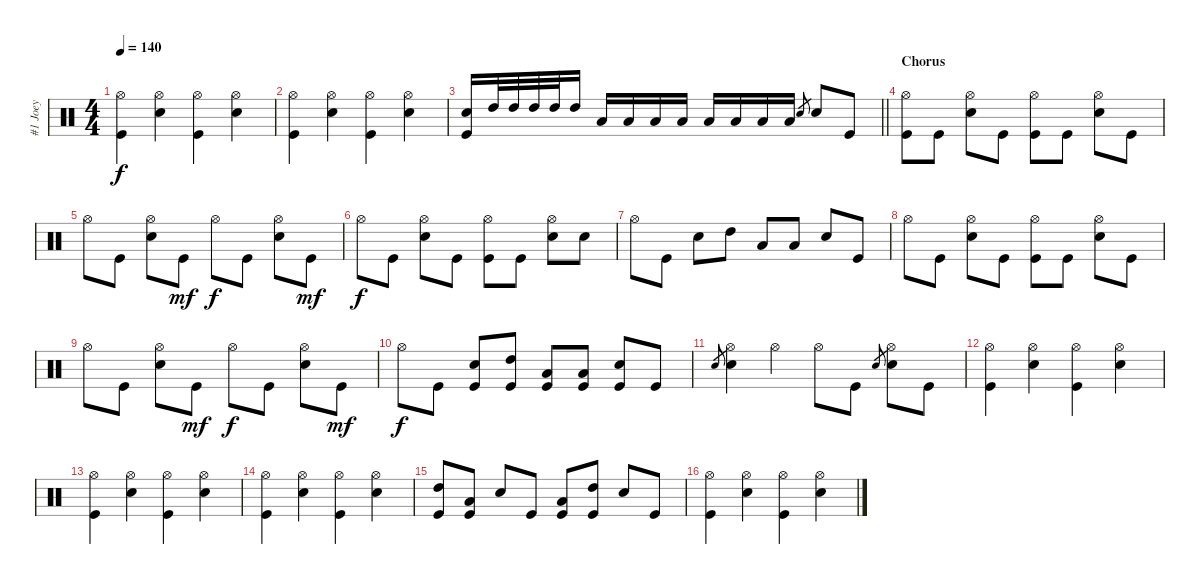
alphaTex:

\track ("#1 Joey" "#1 Joey") {solo instrument percussion}
\staff {score}
\articulation defaults
\ts (4 4)
\tempo 140
\clef neutral
\ks c
("Hi-Hat (open)" "Kick (hit)").4{dy f} ("Hi-Hat (open)" "Electric Snare (hit)").4 ("Hi-Hat (open)" "Kick (hit)").4 ("Hi-Hat (open)" "Electric Snare (hit)").4 |
("Hi-Hat (open)" "Kick (hit)").4 ("Hi-Hat (open)" "Electric Snare (hit)").4 ("Hi-Hat (open)" "Kick (hit)").4 ("Hi-Hat (open)" "Electric Snare (hit)").4 |
\barLineRight lightlight
("Electric Snare (hit)" "Kick (hit)").16 "High Tom (hit)".32 "High Tom (hit)".32 "High Tom (hit)".32 "High Tom (hit)".32 "High Tom (hit)".16 "Low Tom (hit)".16 "Low Tom (hit)".16 "Low Tom (hit)".16 "Low Tom (hit)".16 "Low Floor Tom (hit)".16 "Low Floor Tom (hit)".16 "Low Floor Tom (hit)".16 "Low Floor Tom (hit)".16 "Electric Snare (hit)".8{gr} "Electric Snare (hit)".8 "Kick (hit)".8 |
\section ("" "Chorus")
("Hi-Hat (open)" "Kick (hit)").8 "Kick (hit)".8 ("Hi-Hat (open)" "Electric Snare (hit)").8 "Kick (hit)".8 ("Hi-Hat (open)" "Kick (hit)").8 "Kick (hit)".8 ("Hi-Hat (open)" "Electric Snare (hit)").8 "Kick (hit)".8 |
"Hi-Hat (open)".8 "Kick (hit)".8 ("Hi-Hat (open)" "Electric Snare (hit)").8 "Kick (hit)".8{dy mf} "Hi-Hat (open)".8{dy f} "Kick (hit)".8 ("Hi-Hat (open)" "Electric Snare (hit)").8 "Kick (hit)".8{dy mf} |
"Hi-Hat (open)".8{dy f} "Kick (hit)".8 ("Hi-Hat (open)" "Electric Snare (hit)").8 "Kick (hit)".8 ("Hi-Hat (open)" "Kick (hit)").8 "Kick (hit)".8 ("Hi-Hat (open)" "Electric Snare (hit)").8 "Electric Snare (hit)".8 |
"Hi-Hat (open)".8 "Kick (hit)".8 "Electric Snare (hit)".8 "High Tom (hit)".8 "Low Tom (hit)".8 "Low Floor Tom (hit)".8 "Electric Snare (hit)".8 "Kick (hit)".8 |
"Hi-Hat (open)".8 "Kick (hit)".8 ("Hi-Hat (open)" "Electric Snare (hit)").8 "Kick (hit)".8 ("Hi-Hat (open)" "Kick (hit)").8 "Kick (hit)".8 ("Hi-Hat (open)" "Electric Snare (hit)").8 "Kick (hit)".8 |
"Hi-Hat (open)".8 "Kick (hit)".8 ("Hi-Hat (open)" "Electric Snare (hit)").8 "Kick (hit)".8{dy mf} "Hi-Hat (open)".8{dy f} "Kick (hit)".8 ("Hi-Hat (open)" "Electric Snare (hit)").8 "Kick (hit)".8{dy mf} |
"Hi-Hat (open)".8{dy f} "Kick (hit)".8 ("Electric Snare (hit)" "Kick (hit)").8 ("High Tom (hit)" "Kick (hit)").8 ("Low Tom (hit)" "Kick (hit)").8 ("Low Floor Tom (hit)" "Kick (hit)").8 ("Electric Snare (hit)" "Kick (hit)").8 "Kick (hit)".8 |
"Electric Snare (hit)".8{gr} ("Hi-Hat (open)" "Electric Snare (hit)").4 "Hi-Hat (open)".4 "Hi-Hat (open)".8 "Kick (hit)".8 "Electric Snare (hit)".8{gr} ("Hi-Hat (open)" "Electric Snare (hit)").8 "Kick (hit)".8 |
("Hi-Hat (open)" "Kick (hit)").4 ("Hi-Hat (open)" "Electric Snare (hit)").4 ("Hi-Hat (open)" "Kick (hit)").4 ("Hi-Hat (open)" "Electric Snare (hit)").4 |
("Hi-Hat (open)" "Kick (hit)").4 ("Hi-Hat (open)" "Electric Snare (hit)").4 ("Hi-Hat (open)" "Kick (hit)").4 ("Hi-Hat (open)" "Electric Snare (hit)").4 |
("Hi-Hat (open)" "Kick (hit)").4 ("Hi-Hat (open)" "Electric Snare (hit)").4 ("Hi-Hat (open)" "Kick (hit)").4 ("Hi-Hat (open)" "Electric Snare (hit)").4 |
("High Tom (hit)" "Kick (hit)").8 ("Low Tom (hit)" "Kick (hit)").8 "Electric Snare (hit)".8 "Kick (hit)".8 ("Low Tom (hit)" "Kick (hit)").8 ("High Tom (hit)" "Kick (hit)").8 "Electric Snare (hit)".8 "Kick (hit)".8 |
("Hi-Hat (open)" "Kick (hit)").4 ("Hi-Hat (open)" "Electric Snare (hit)").4 ("Hi-Hat (open)" "Kick (hit)").4 ("Hi-Hat (open)" "Electric Snare (hit)").4
